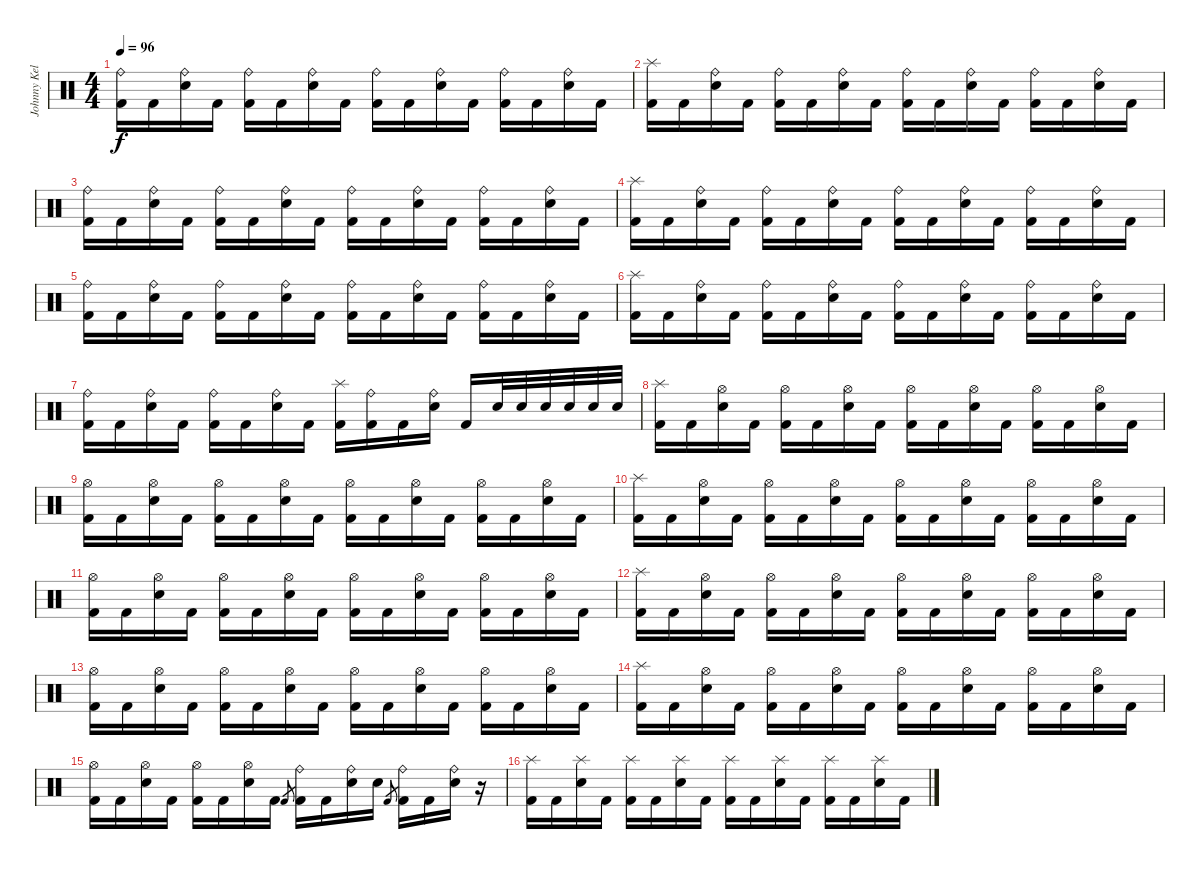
\track ("Johnny Kelly - Drums" "Johnny Kel") {instrument percussion}
\staff {score}
\articulation defaults
\ts (4 4)
\tempo 96
\clef neutral
\ks c
("Ride (bell)" "Kick (hit) 2").16{dy f} "Kick (hit) 2".16 ("Ride (bell)" "Electric Snare (hit)").16 "Kick (hit) 2".16 ("Ride (bell)" "Kick (hit) 2").16 "Kick (hit) 2".16 ("Ride (bell)" "Electric Snare (hit)").16 "Kick (hit) 2".16 ("Ride (bell)" "Kick (hit) 2").16 "Kick (hit) 2".16 ("Ride (bell)" "Electric Snare (hit)").16 "Kick (hit) 2".16 ("Ride (bell)" "Kick (hit) 2").16 "Kick (hit) 2".16 ("Ride (bell)" "Electric Snare (hit)").16 "Kick (hit) 2".16 |
("Splash (hit)" "Kick (hit) 2").16 "Kick (hit) 2".16 ("Ride (bell)" "Electric Snare (hit)").16 "Kick (hit) 2".16 ("Ride (bell)" "Kick (hit) 2").16 "Kick (hit) 2".16 ("Ride (bell)" "Electric Snare (hit)").16 "Kick (hit) 2".16 ("Ride (bell)" "Kick (hit) 2").16 "Kick (hit) 2".16 ("Ride (bell)" "Electric Snare (hit)").16 "Kick (hit) 2".16 ("Ride (bell)" "Kick (hit) 2").16 "Kick (hit) 2".16 ("Ride (bell)" "Electric Snare (hit)").16 "Kick (hit) 2".16 |
("Ride (bell)" "Kick (hit) 2").16 "Kick (hit) 2".16 ("Ride (bell)" "Electric Snare (hit)").16 "Kick (hit) 2".16 ("Ride (bell)" "Kick (hit) 2").16 "Kick (hit) 2".16 ("Ride (bell)" "Electric Snare (hit)").16 "Kick (hit) 2".16 ("Ride (bell)" "Kick (hit) 2").16 "Kick (hit) 2".16 ("Ride (bell)" "Electric Snare (hit)").16 "Kick (hit) 2".16 ("Ride (bell)" "Kick (hit) 2").16 "Kick (hit) 2".16 ("Ride (bell)" "Electric Snare (hit)").16 "Kick (hit) 2".16 |
("Splash (hit)" "Kick (hit) 2").16 "Kick (hit) 2".16 ("Ride (bell)" "Electric Snare (hit)").16 "Kick (hit) 2".16 ("Ride (bell)" "Kick (hit) 2").16 "Kick (hit) 2".16 ("Ride (bell)" "Electric Snare (hit)").16 "Kick (hit) 2".16 ("Ride (bell)" "Kick (hit) 2").16 "Kick (hit) 2".16 ("Ride (bell)" "Electric Snare (hit)").16 "Kick (hit) 2".16 ("Ride (bell)" "Kick (hit) 2").16 "Kick (hit) 2".16 ("Ride (bell)" "Electric Snare (hit)").16 "Kick (hit) 2".16 |
("Ride (bell)" "Kick (hit) 2").16 "Kick (hit) 2".16 ("Ride (bell)" "Electric Snare (hit)").16 "Kick (hit) 2".16 ("Ride (bell)" "Kick (hit) 2").16 "Kick (hit) 2".16 ("Ride (bell)" "Electric Snare (hit)").16 "Kick (hit) 2".16 ("Ride (bell)" "Kick (hit) 2").16 "Kick (hit) 2".16 ("Ride (bell)" "Electric Snare (hit)").16 "Kick (hit) 2".16 ("Ride (bell)" "Kick (hit) 2").16 "Kick (hit) 2".16 ("Ride (bell)" "Electric Snare (hit)").16 "Kick (hit) 2".16 |
("Splash (hit)" "Kick (hit) 2").16 "Kick (hit) 2".16 ("Ride (bell)" "Electric Snare (hit)").16 "Kick (hit) 2".16 ("Ride (bell)" "Kick (hit) 2").16 "Kick (hit) 2".16 ("Ride (bell)" "Electric Snare (hit)").16 "Kick (hit) 2".16 ("Ride (bell)" "Kick (hit) 2").16 "Kick (hit) 2".16 ("Ride (bell)" "Electric Snare (hit)").16 "Kick (hit) 2".16 ("Ride (bell)" "Kick (hit) 2").16 "Kick (hit) 2".16 ("Ride (bell)" "Electric Snare (hit)").16 "Kick (hit) 2".16 |
("Ride (bell)" "Kick (hit) 2").16 "Kick (hit) 2".16 ("Ride (bell)" "Electric Snare (hit)").16 "Kick (hit) 2".16 ("Ride (bell)" "Kick (hit) 2").16 "Kick (hit) 2".16 ("Ride (bell)" "Electric Snare (hit)").16 "Kick (hit) 2".16 ("Splash (hit)" "Kick (hit) 2").16 ("Ride (bell)" "Kick (hit) 2").16 "Kick (hit) 2".16 ("Ride (bell)" "Electric Snare (hit)").16 "Kick (hit) 2".16 "Electric Snare (hit)".32 "Electric Snare (hit)".32 "Electric Snare (hit)".32 "Electric Snare (hit)".32 "Electric Snare (hit)".32 "Electric Snare (hit)".32 |
("Splash (hit)" "Kick (hit) 2").16 "Kick (hit) 2".16 ("Hi-Hat (open)" "Electric Snare (hit)").16 "Kick (hit) 2".16 ("Hi-Hat (open)" "Kick (hit) 2").16 "Kick (hit) 2".16 ("Hi-Hat (open)" "Electric Snare (hit)").16 "Kick (hit) 2".16 ("Hi-Hat (open)" "Kick (hit) 2").16 "Kick (hit) 2".16 ("Hi-Hat (open)" "Electric Snare (hit)").16 "Kick (hit) 2".16 ("Hi-Hat (open)" "Kick (hit) 2").16 "Kick (hit) 2".16 ("Hi-Hat (open)" "Electric Snare (hit)").16 "Kick (hit) 2".16 |
("Hi-Hat (open)" "Kick (hit) 2").16 "Kick (hit) 2".16 ("Hi-Hat (open)" "Electric Snare (hit)").16 "Kick (hit) 2".16 ("Hi-Hat (open)" "Kick (hit) 2").16 "Kick (hit) 2".16 ("Hi-Hat (open)" "Electric Snare (hit)").16 "Kick (hit) 2".16 ("Hi-Hat (open)" "Kick (hit) 2").16 "Kick (hit) 2".16 ("Hi-Hat (open)" "Electric Snare (hit)").16 "Kick (hit) 2".16 ("Hi-Hat (open)" "Kick (hit) 2").16 "Kick (hit) 2".16 ("Hi-Hat (open)" "Electric Snare (hit)").16 "Kick (hit) 2".16 |
("Splash (hit)" "Kick (hit) 2").16 "Kick (hit) 2".16 ("Hi-Hat (open)" "Electric Snare (hit)").16 "Kick (hit) 2".16 ("Hi-Hat (open)" "Kick (hit) 2").16 "Kick (hit) 2".16 ("Hi-Hat (open)" "Electric Snare (hit)").16 "Kick (hit) 2".16 ("Hi-Hat (open)" "Kick (hit) 2").16 "Kick (hit) 2".16 ("Hi-Hat (open)" "Electric Snare (hit)").16 "Kick (hit) 2".16 ("Hi-Hat (open)" "Kick (hit) 2").16 "Kick (hit) 2".16 ("Hi-Hat (open)" "Electric Snare (hit)").16 "Kick (hit) 2".16 |
("Hi-Hat (open)" "Kick (hit) 2").16 "Kick (hit) 2".16 ("Hi-Hat (open)" "Electric Snare (hit)").16 "Kick (hit) 2".16 ("Hi-Hat (open)" "Kick (hit) 2").16 "Kick (hit) 2".16 ("Hi-Hat (open)" "Electric Snare (hit)").16 "Kick (hit) 2".16 ("Hi-Hat (open)" "Kick (hit) 2").16 "Kick (hit) 2".16 ("Hi-Hat (open)" "Electric Snare (hit)").16 "Kick (hit) 2".16 ("Hi-Hat (open)" "Kick (hit) 2").16 "Kick (hit) 2".16 ("Hi-Hat (open)" "Electric Snare (hit)").16 "Kick (hit) 2".16 |
("Splash (hit)" "Kick (hit) 2").16 "Kick (hit) 2".16 ("Hi-Hat (open)" "Electric Snare (hit)").16 "Kick (hit) 2".16 ("Hi-Hat (open)" "Kick (hit) 2").16 "Kick (hit) 2".16 ("Hi-Hat (open)" "Electric Snare (hit)").16 "Kick (hit) 2".16 ("Hi-Hat (open)" "Kick (hit) 2").16 "Kick (hit) 2".16 ("Hi-Hat (open)" "Electric Snare (hit)").16 "Kick (hit) 2".16 ("Hi-Hat (open)" "Kick (hit) 2").16 "Kick (hit) 2".16 ("Hi-Hat (open)" "Electric Snare (hit)").16 "Kick (hit) 2".16 |
("Hi-Hat (open)" "Kick (hit) 2").16 "Kick (hit) 2".16 ("Hi-Hat (open)" "Electric Snare (hit)").16 "Kick (hit) 2".16 ("Hi-Hat (open)" "Kick (hit) 2").16 "Kick (hit) 2".16 ("Hi-Hat (open)" "Electric Snare (hit)").16 "Kick (hit) 2".16 ("Hi-Hat (open)" "Kick (hit) 2").16 "Kick (hit) 2".16 ("Hi-Hat (open)" "Electric Snare (hit)").16 "Kick (hit) 2".16 ("Hi-Hat (open)" "Kick (hit) 2").16 "Kick (hit) 2".16 ("Hi-Hat (open)" "Electric Snare (hit)").16 "Kick (hit) 2".16 |
("Splash (hit)" "Kick (hit) 2").16 "Kick (hit) 2".16 ("Hi-Hat (open)" "Electric Snare (hit)").16 "Kick (hit) 2".16 ("Hi-Hat (open)" "Kick (hit) 2").16 "Kick (hit) 2".16 ("Hi-Hat (open)" "Electric Snare (hit)").16 "Kick (hit) 2".16 ("Hi-Hat (open)" "Kick (hit) 2").16 "Kick (hit) 2".16 ("Hi-Hat (open)" "Electric Snare (hit)").16 "Kick (hit) 2".16 ("Hi-Hat (open)" "Kick (hit) 2").16 "Kick (hit) 2".16 ("Hi-Hat (open)" "Electric Snare (hit)").16 "Kick (hit) 2".16 |
("Hi-Hat (open)" "Kick (hit) 2").16 "Kick (hit) 2".16 ("Hi-Hat (open)" "Electric Snare (hit)").16 "Kick (hit) 2".16 ("Hi-Hat (open)" "Kick (hit) 2").16 "Kick (hit) 2".16 ("Hi-Hat (open)" "Electric Snare (hit)").16 "Kick (hit) 2".16 "Kick (hit) 2".8{gr} ("Ride (bell)" "Kick (hit) 2").16 "Kick (hit) 2".16 ("Ride (bell)" "Electric Snare (hit)").16 "Electric Snare (hit)".16 "Kick (hit) 2".8{gr} ("Ride (bell)" "Kick (hit) 2").16 "Kick (hit) 2".16 ("Ride (bell)" "Electric Snare (hit)").16 r.16 |
("Splash (hit)" "Kick (hit) 2").16 "Kick (hit) 2".16 ("Splash (hit)" "Electric Snare (hit)").16 "Kick (hit) 2".16 ("Splash (hit)" "Kick (hit) 2").16 "Kick (hit) 2".16 ("Splash (hit)" "Electric Snare (hit)").16 "Kick (hit) 2".16 ("Splash (hit)" "Kick (hit) 2").16 "Kick (hit) 2".16 ("Splash (hit)" "Electric Snare (hit)").16 "Kick (hit) 2".16 ("Splash (hit)" "Kick (hit) 2").16 "Kick (hit) 2".16 ("Splash (hit)" "Electric Snare (hit)").16 "Kick (hit) 2".16
